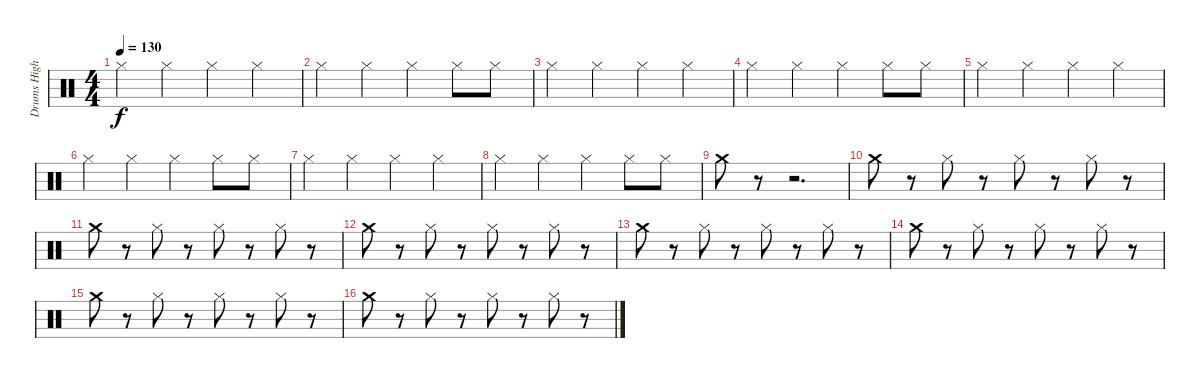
\track ("Drums High" "Drums High") {instrument percussion}
\staff {score}
\articulation defaults
\ts (4 4)
\tempo 130
\clef neutral
\ks c "Hi-Hat (closed)".4{dy f} "Hi-Hat (closed)".4 "Hi-Hat (closed)".4 "Hi-Hat (closed)".4
|
"Hi-Hat (closed)".4 "Hi-Hat (closed)".4 "Hi-Hat (closed)".4 "Hi-Hat (closed)".8 "Hi-Hat (closed)".8 |
"Hi-Hat (closed)".4 "Hi-Hat (closed)".4 "Hi-Hat (closed)".4 "Hi-Hat (closed)".4 |
"Hi-Hat (closed)".4 "Hi-Hat (closed)".4 "Hi-Hat (closed)".4 "Hi-Hat (closed)".8 "Hi-Hat (closed)".8 |
"Hi-Hat (closed)".4 "Hi-Hat (closed)".4 "Hi-Hat (closed)".4 "Hi-Hat (closed)".4 |
"Hi-Hat (closed)".4 "Hi-Hat (closed)".4 "Hi-Hat (closed)".4 "Hi-Hat (closed)".8 "Hi-Hat (closed)".8 |
"Hi-Hat (closed)".4 "Hi-Hat (closed)".4 "Hi-Hat (closed)".4 "Hi-Hat (closed)".4 |
"Hi-Hat (closed)".4 "Hi-Hat (closed)".4 "Hi-Hat (closed)".4 "Hi-Hat (closed)".8 "Hi-Hat (closed)".8 |
"Crash medium (hit)".8{volume 14} r.8 r.2{d} |
"Crash medium (hit)".8 r.8 "Hi-Hat (closed)".8 r.8 "Hi-Hat (closed)".8 r.8 "Hi-Hat (closed)".8 r.8 |
"Crash medium (hit)".8 r.8 "Hi-Hat (closed)".8 r.8 "Hi-Hat (closed)".8 r.8 "Hi-Hat (closed)".8 r.8 |
"Crash medium (hit)".8 r.8 "Hi-Hat (closed)".8 r.8 "Hi-Hat (closed)".8 r.8 "Hi-Hat (closed)".8 r.8 |
"Crash medium (hit)".8 r.8 "Hi-Hat (closed)".8 r.8 "Hi-Hat (closed)".8 r.8 "Hi-Hat (closed)".8 r.8 |
"Crash medium (hit)".8 r.8 "Hi-Hat (closed)".8 r.8 "Hi-Hat (closed)".8 r.8 "Hi-Hat (closed)".8 r.8 |
"Crash medium (hit)".8 r.8 "Hi-Hat (closed)".8 r.8 "Hi-Hat (closed)".8 r.8 "Hi-Hat (closed)".8 r.8 |
"Crash medium (hit)".8 r.8 "Hi-Hat (closed)".8 r.8 "Hi-Hat (closed)".8 r.8 "Hi-Hat (closed)".8 r.8
